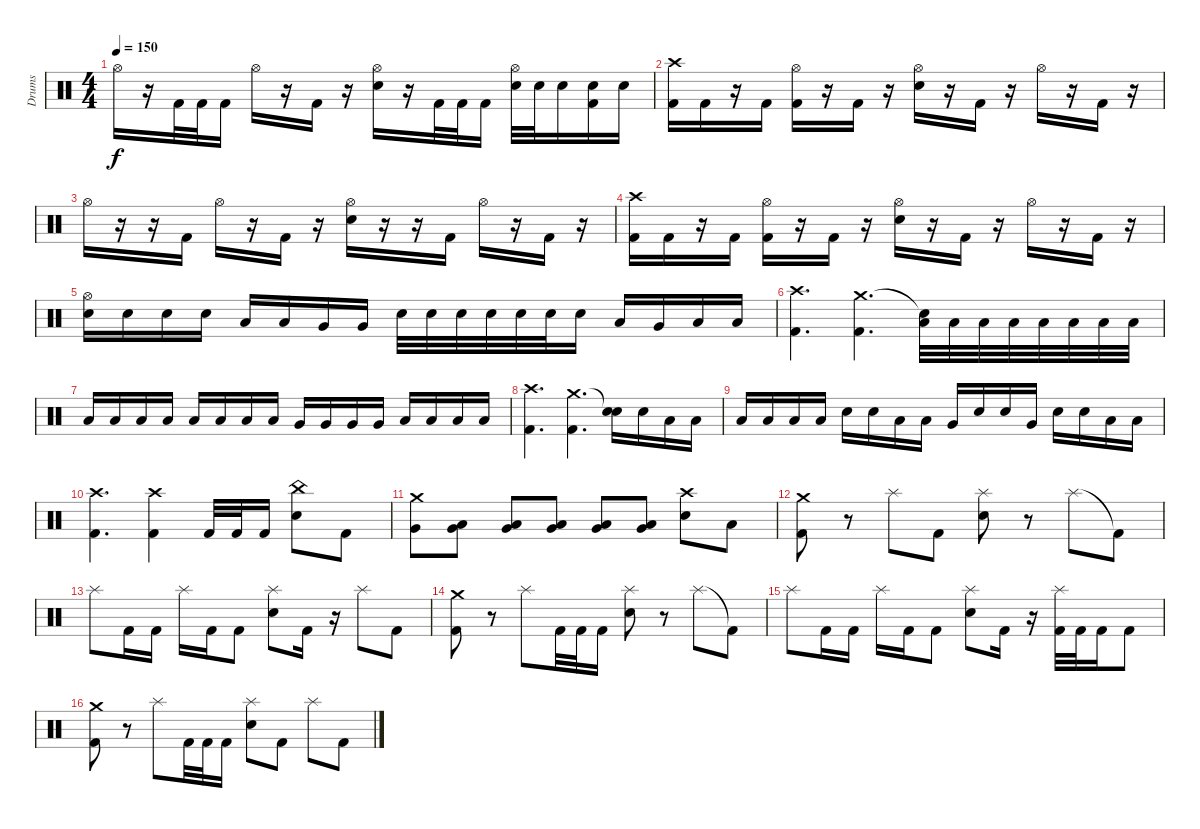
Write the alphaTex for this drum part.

\track ("Drums" "Drums") {instrument percussion}
\staff {score}
\articulation defaults
\ts (4 4)
\tempo 150
\clef neutral
\ks c "Hi-Hat (open)".16{dy f}
r.16 "Kick (hit) 2".32 "Kick (hit) 2".32 "Kick (hit) 2".16 "Hi-Hat (open)".16 r.16 "Kick (hit) 2".16 r.16 ("Hi-Hat (open)" "Snare (hit) 2").16 r.16 "Kick (hit) 2".32 "Kick (hit) 2".32 "Kick (hit) 2".16 ("Hi-Hat (open)" "Snare (hit) 2").32 "Snare (hit) 2".32 "Snare (hit) 2".16 ("Snare (hit) 2" "Kick (hit) 2").16 "Snare (hit) 2".16 |
("Crash high (hit)" "Kick (hit) 2").16 "Kick (hit) 2".16 r.16 "Kick (hit) 2".16 ("Hi-Hat (open)" "Kick (hit) 2").16 r.16 "Kick (hit) 2".16 r.16 ("Hi-Hat (open)" "Snare (hit) 2").16 r.16 "Kick (hit) 2".16 r.16 "Hi-Hat (open)".16 r.16 "Kick (hit) 2".16 r.16 |
"Hi-Hat (open)".16 r.16 r.16 "Kick (hit) 2".16 "Hi-Hat (open)".16 r.16 "Kick (hit) 2".16 r.16 ("Hi-Hat (open)" "Snare (hit) 2").16 r.16 r.16 "Kick (hit) 2".16 "Hi-Hat (open)".16 r.16 "Kick (hit) 2".16 r.16 |
("Crash high (hit)" "Kick (hit) 2").16 "Kick (hit) 2".16 r.16 "Kick (hit) 2".16 ("Hi-Hat (open)" "Kick (hit) 2").16 r.16 "Kick (hit) 2".16 r.16 ("Hi-Hat (open)" "Snare (hit) 2").16 r.16 "Kick (hit) 2".16 r.16 "Hi-Hat (open)".16 r.16 "Kick (hit) 2".16 r.16 |
("Hi-Hat (open)" "Snare (hit) 2").16 "Snare (hit) 2".16 "Snare (hit) 2".16 "Snare (hit) 2".16 "Low Tom (hit)".16 "Low Tom (hit)".16 "Very Low Tom (hit)".16 "Very Low Tom (hit)".16 "Snare (hit) 2".32 "Snare (hit) 2".32 "Snare (hit) 2".32 "Snare (hit) 2".32 "Snare (hit) 2".32 "Snare (hit) 2".32 "Snare (hit) 2".16 "Low Tom (hit)".16 "Very Low Tom (hit)".16 "Low Floor Tom (hit)".16 "Low Floor Tom (hit)".16 |
("Crash high (hit)" "Kick (hit) 2").4{d} ("Crash medium (hit)" "Kick (hit) 2").4{d} ("Snare (hit)"{t} "Low Tom (hit)").32 "Low Tom (hit)".32 "Low Tom (hit)".32 "Low Tom (hit)".32 "Low Tom (hit)".32 "Low Tom (hit)".32 "Low Tom (hit)".32 "Low Tom (hit)".32 |
"Low Tom (hit)".16 "Low Tom (hit)".16 "Low Tom (hit)".16 "Low Tom (hit)".16 "Low Tom (hit)".16 "Low Tom (hit)".16 "Low Tom (hit)".16 "Low Tom (hit)".16 "Very Low Tom (hit)".16 "Very Low Tom (hit)".16 "Very Low Tom (hit)".16 "Very Low Tom (hit)".16 "Low Floor Tom (hit)".16 "Low Floor Tom (hit)".16 "Low Floor Tom (hit)".16 "Low Floor Tom (hit)".16 |
("Crash high (hit)" "Kick (hit) 2").4{d} ("Crash medium (hit)" "Kick (hit) 2").4{d} ("Snare (hit)"{t} "Snare (hit) 2").16 "Snare (hit) 2".16 "Low Tom (hit)".16 "Low Tom (hit)".16 |
"Low Tom (hit)".16 "Low Tom (hit)".16 "Low Tom (hit)".16 "Low Tom (hit)".16 "Snare (hit) 2".16 "Snare (hit) 2".16 "Low Tom (hit)".16 "Low Tom (hit)".16 "Very Low Tom (hit)".16 "Snare (hit) 2".16 "Snare (hit) 2".16 "Very Low Tom (hit)".16 "Snare (hit) 2".16 "Snare (hit) 2".16 "Low Floor Tom (hit)".16 "Low Floor Tom (hit)".16 |
("Crash high (hit)" "Kick (hit) 2").4{d} ("Crash high (hit)" "Kick (hit) 2").4 "Kick (hit) 2".32 "Kick (hit) 2".32 "Kick (hit) 2".16 ("China (hit)" "Snare (hit) 2").8 "Kick (hit) 2".8 |
("Crash medium (hit)" "Very Low Tom (hit)").8 ("Very Low Tom (hit)" "Low Floor Tom (hit)").8 ("Very Low Tom (hit)" "Low Floor Tom (hit)").8 ("Very Low Tom (hit)" "Low Floor Tom (hit)").8 ("Very Low Tom (hit)" "Low Floor Tom (hit)").8 ("Very Low Tom (hit)" "Low Floor Tom (hit)").8 ("Crash high (hit)" "Snare (hit) 2").8 "Low Floor Tom (hit)".8 |
("Crash medium (hit)" "Kick (hit) 2").8 r.8 "Splash (hit)".8 "Kick (hit) 2".8 ("Splash (hit)" "Snare (hit) 2").8 r.8 "Splash (hit)".8 "Kick (hit) 2"{t}.8 |
"Splash (hit)".8 "Kick (hit) 2".16 "Kick (hit) 2".16 "Splash (hit)".16 "Kick (hit) 2".16 "Kick (hit) 2".8 ("Splash (hit)" "Snare (hit) 2").8 "Kick (hit) 2".16 r.16 "Splash (hit)".8 "Kick (hit) 2".8 |
("Crash medium (hit)" "Kick (hit) 2").8 r.8 "Splash (hit)".8 "Kick (hit) 2".32 "Kick (hit) 2".32 "Kick (hit) 2".16 ("Splash (hit)" "Snare (hit) 2").8 r.8 "Splash (hit)".8 "Kick (hit) 2"{t}.8 |
"Splash (hit)".8 "Kick (hit) 2".16 "Kick (hit) 2".16 "Splash (hit)".16 "Kick (hit) 2".16 "Kick (hit) 2".8 ("Splash (hit)" "Snare (hit) 2").8 "Kick (hit) 2".16 r.16 ("Splash (hit)" "Kick (hit) 2").32 "Kick (hit) 2".32 "Kick (hit) 2".16 "Kick (hit) 2".8 |
("Crash medium (hit)" "Kick (hit) 2").8 r.8 "Splash (hit)".8 "Kick (hit) 2".32 "Kick (hit) 2".32 "Kick (hit) 2".16 ("Splash (hit)" "Snare (hit) 2").8 "Kick (hit) 2".8 "Splash (hit)".8 "Kick (hit) 2".8
